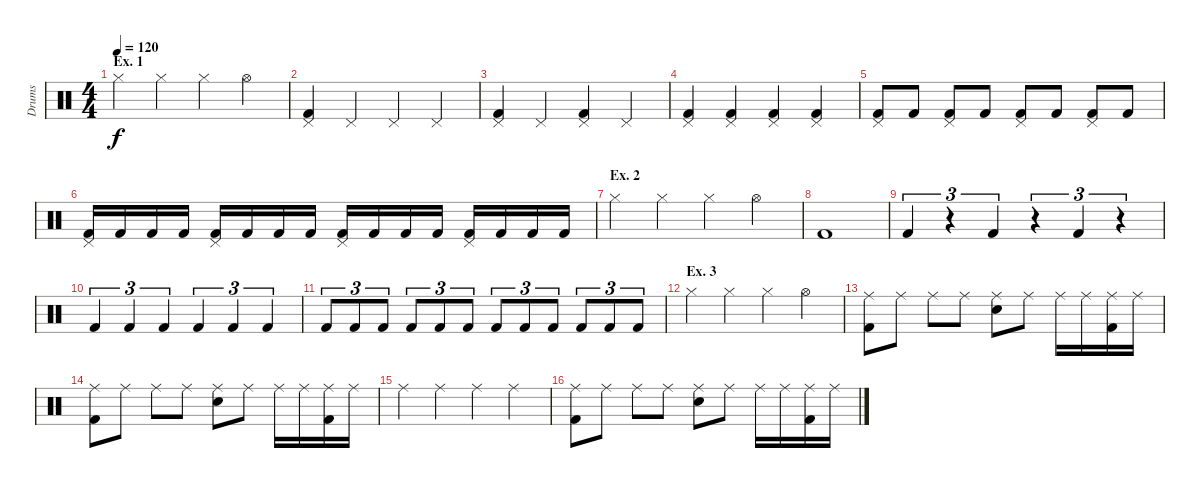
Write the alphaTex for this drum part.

\track ("Drums" "Drums") {instrument percussion}
\staff {score}
\articulation defaults
\ts (4 4)
\section ("" "Ex. 1")
\tempo 120
\clef neutral
\ks c "Hi-Hat (closed)".4{dy f} "Hi-Hat (closed)".4 "Hi-Hat (closed)".4 "Hi-Hat (open)".4
|
("Pedal Hi-Hat (hit)" "Kick (hit) 2").4 "Pedal Hi-Hat (hit)".4 "Pedal Hi-Hat (hit)".4 "Pedal Hi-Hat (hit)".4 |
("Pedal Hi-Hat (hit)" "Kick (hit) 2").4 "Pedal Hi-Hat (hit)".4 ("Pedal Hi-Hat (hit)" "Kick (hit) 2").4 "Pedal Hi-Hat (hit)".4 |
("Pedal Hi-Hat (hit)" "Kick (hit) 2").4 ("Pedal Hi-Hat (hit)" "Kick (hit) 2").4 ("Pedal Hi-Hat (hit)" "Kick (hit) 2").4 ("Pedal Hi-Hat (hit)" "Kick (hit) 2").4 |
("Pedal Hi-Hat (hit)" "Kick (hit) 2").8 "Kick (hit) 2".8 ("Pedal Hi-Hat (hit)" "Kick (hit) 2").8 "Kick (hit) 2".8 ("Pedal Hi-Hat (hit)" "Kick (hit) 2").8 "Kick (hit) 2".8 ("Pedal Hi-Hat (hit)" "Kick (hit) 2").8 "Kick (hit) 2".8 |
("Pedal Hi-Hat (hit)" "Kick (hit) 2").16 "Kick (hit) 2".16 "Kick (hit) 2".16 "Kick (hit) 2".16 ("Pedal Hi-Hat (hit)" "Kick (hit) 2").16 "Kick (hit) 2".16 "Kick (hit) 2".16 "Kick (hit) 2".16 ("Pedal Hi-Hat (hit)" "Kick (hit) 2").16 "Kick (hit) 2".16 "Kick (hit) 2".16 "Kick (hit) 2".16 ("Pedal Hi-Hat (hit)" "Kick (hit) 2").16 "Kick (hit) 2".16 "Kick (hit) 2".16 "Kick (hit) 2".16 |
\section ("" "Ex. 2")
"Hi-Hat (closed)".4 "Hi-Hat (closed)".4 "Hi-Hat (closed)".4 "Hi-Hat (open)".4 |
"Kick (hit) 2".1 |
"Kick (hit) 2".4{tu (3 2)} r.4{tu (3 2)} "Kick (hit) 2".4{tu (3 2)} r.4{tu (3 2)} "Kick (hit) 2".4{tu (3 2)} r.4{tu (3 2)} |
"Kick (hit) 2".4{tu (3 2)} "Kick (hit) 2".4{tu (3 2)} "Kick (hit) 2".4{tu (3 2)} "Kick (hit) 2".4{tu (3 2)} "Kick (hit) 2".4{tu (3 2)} "Kick (hit) 2".4{tu (3 2)} |
"Kick (hit) 2".8{tu (3 2)} "Kick (hit) 2".8{tu (3 2)} "Kick (hit) 2".8{tu (3 2)} "Kick (hit) 2".8{tu (3 2)} "Kick (hit) 2".8{tu (3 2)} "Kick (hit) 2".8{tu (3 2)} "Kick (hit) 2".8{tu (3 2)} "Kick (hit) 2".8{tu (3 2)} "Kick (hit) 2".8{tu (3 2)} "Kick (hit) 2".8{tu (3 2)} "Kick (hit) 2".8{tu (3 2)} "Kick (hit) 2".8{tu (3 2)} |
\section ("" "Ex. 3")
"Hi-Hat (closed)".4 "Hi-Hat (closed)".4 "Hi-Hat (closed)".4 "Hi-Hat (open)".4 |
("Ride (middle)" "Kick (hit) 2").8 "Ride (middle)".8 "Ride (middle)".8 "Ride (middle)".8 ("Ride (middle)" "Snare (hit) 2").8 "Ride (middle)".8 "Ride (middle)".16 "Ride (middle)".16 ("Ride (middle)" "Kick (hit) 2").16 "Ride (middle)".16 |
("Ride (middle)" "Kick (hit) 2").8 "Ride (middle)".8 "Ride (middle)".8 "Ride (middle)".8 ("Ride (middle)" "Snare (hit) 2").8 "Ride (middle)".8 "Ride (middle)".16 "Ride (middle)".16 ("Ride (middle)" "Kick (hit) 2").16 "Ride (middle)".16 |
"Ride (middle)".4 "Ride (middle)".4 "Ride (middle)".4 "Ride (middle)".4 |
("Ride (middle)" "Kick (hit) 2").8 "Ride (middle)".8 "Ride (middle)".8 "Ride (middle)".8 ("Ride (middle)" "Snare (hit) 2").8 "Ride (middle)".8 "Ride (middle)".16 "Ride (middle)".16 ("Ride (middle)" "Kick (hit) 2").16 "Ride (middle)".16
